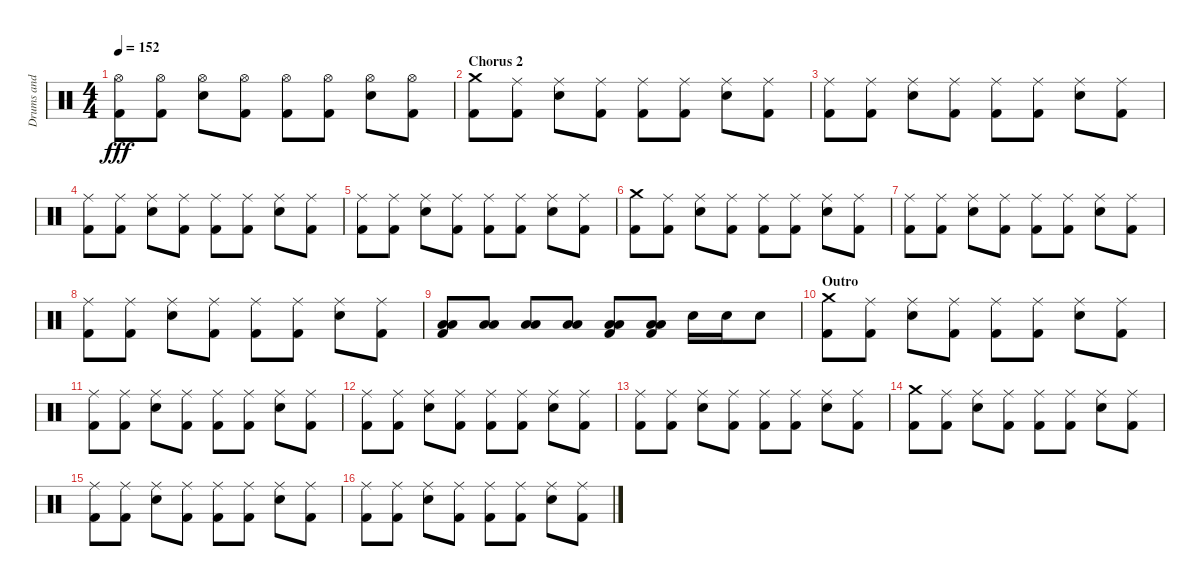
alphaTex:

\track ("Drums and Percussion" "Drums and ") {instrument percussion}
\staff {score}
\articulation defaults
\ts (4 4)
\tempo 152
\clef neutral
\ks c
("Hi-Hat (open)" "Kick (hit) 2").8{dy fff} ("Hi-Hat (open)" "Kick (hit) 2").8 ("Hi-Hat (open)" "Snare (hit) 2").8 ("Hi-Hat (open)" "Kick (hit) 2").8 ("Hi-Hat (open)" "Kick (hit) 2").8 ("Hi-Hat (open)" "Kick (hit) 2").8 ("Hi-Hat (open)" "Snare (hit) 2").8 ("Hi-Hat (open)" "Kick (hit) 2").8 |
\section ("" "Chorus 2")
("Crash medium (hit)" "Kick (hit) 2").8 ("Ride (middle)" "Kick (hit) 2").8 ("Ride (middle)" "Snare (hit) 2").8 ("Ride (middle)" "Kick (hit) 2").8 ("Ride (middle)" "Kick (hit) 2").8 ("Ride (middle)" "Kick (hit) 2").8 ("Ride (middle)" "Snare (hit) 2").8 ("Ride (middle)" "Kick (hit) 2").8 |
("Ride (middle)" "Kick (hit) 2").8 ("Ride (middle)" "Kick (hit) 2").8 ("Ride (middle)" "Snare (hit) 2").8 ("Ride (middle)" "Kick (hit) 2").8 ("Ride (middle)" "Kick (hit) 2").8 ("Ride (middle)" "Kick (hit) 2").8 ("Ride (middle)" "Snare (hit) 2").8 ("Ride (middle)" "Kick (hit) 2").8 |
("Ride (middle)" "Kick (hit) 2").8 ("Ride (middle)" "Kick (hit) 2").8 ("Ride (middle)" "Snare (hit) 2").8 ("Ride (middle)" "Kick (hit) 2").8 ("Ride (middle)" "Kick (hit) 2").8 ("Ride (middle)" "Kick (hit) 2").8 ("Ride (middle)" "Snare (hit) 2").8 ("Ride (middle)" "Kick (hit) 2").8 |
("Ride (middle)" "Kick (hit) 2").8 ("Ride (middle)" "Kick (hit) 2").8 ("Ride (middle)" "Snare (hit) 2").8 ("Ride (middle)" "Kick (hit) 2").8 ("Ride (middle)" "Kick (hit) 2").8 ("Ride (middle)" "Kick (hit) 2").8 ("Ride (middle)" "Snare (hit) 2").8 ("Ride (middle)" "Kick (hit) 2").8 |
("Crash medium (hit)" "Kick (hit) 2").8 ("Ride (middle)" "Kick (hit) 2").8 ("Ride (middle)" "Snare (hit) 2").8 ("Ride (middle)" "Kick (hit) 2").8 ("Ride (middle)" "Kick (hit) 2").8 ("Ride (middle)" "Kick (hit) 2").8 ("Ride (middle)" "Snare (hit) 2").8 ("Ride (middle)" "Kick (hit) 2").8 |
("Ride (middle)" "Kick (hit) 2").8 ("Ride (middle)" "Kick (hit) 2").8 ("Ride (middle)" "Snare (hit) 2").8 ("Ride (middle)" "Kick (hit) 2").8 ("Ride (middle)" "Kick (hit) 2").8 ("Ride (middle)" "Kick (hit) 2").8 ("Ride (middle)" "Snare (hit) 2").8 ("Ride (middle)" "Kick (hit) 2").8 |
("Ride (middle)" "Kick (hit) 2").8 ("Ride (middle)" "Kick (hit) 2").8 ("Ride (middle)" "Snare (hit) 2").8 ("Ride (middle)" "Kick (hit) 2").8 ("Ride (middle)" "Kick (hit) 2").8 ("Ride (middle)" "Kick (hit) 2").8 ("Ride (middle)" "Snare (hit) 2").8 ("Ride (middle)" "Kick (hit) 2").8 |
("Low Tom (hit)" "Low Floor Tom (hit)" "Kick (hit) 2").8 ("Low Tom (hit)" "Low Floor Tom (hit)").8 ("Low Tom (hit)" "Low Floor Tom (hit)").8 ("Low Tom (hit)" "Low Floor Tom (hit)").8 ("Low Tom (hit)" "Low Floor Tom (hit)" "Kick (hit) 2").8 ("Low Tom (hit)" "Low Floor Tom (hit)" "Kick (hit) 2").8 "Snare (hit) 2".16 "Snare (hit) 2".16 "Snare (hit) 2".8 |
\section ("" "Outro")
("Crash medium (hit)" "Kick (hit) 2").8 ("Ride (middle)" "Kick (hit) 2").8 ("Ride (middle)" "Snare (hit) 2").8 ("Ride (middle)" "Kick (hit) 2").8 ("Ride (middle)" "Kick (hit) 2").8 ("Ride (middle)" "Kick (hit) 2").8 ("Ride (middle)" "Snare (hit) 2").8 ("Ride (middle)" "Kick (hit) 2").8 |
("Ride (middle)" "Kick (hit) 2").8 ("Ride (middle)" "Kick (hit) 2").8 ("Ride (middle)" "Snare (hit) 2").8 ("Ride (middle)" "Kick (hit) 2").8 ("Ride (middle)" "Kick (hit) 2").8 ("Ride (middle)" "Kick (hit) 2").8 ("Ride (middle)" "Snare (hit) 2").8 ("Ride (middle)" "Kick (hit) 2").8 |
("Ride (middle)" "Kick (hit) 2").8 ("Ride (middle)" "Kick (hit) 2").8 ("Ride (middle)" "Snare (hit) 2").8 ("Ride (middle)" "Kick (hit) 2").8 ("Ride (middle)" "Kick (hit) 2").8 ("Ride (middle)" "Kick (hit) 2").8 ("Ride (middle)" "Snare (hit) 2").8 ("Ride (middle)" "Kick (hit) 2").8 |
("Ride (middle)" "Kick (hit) 2").8 ("Ride (middle)" "Kick (hit) 2").8 ("Ride (middle)" "Snare (hit) 2").8 ("Ride (middle)" "Kick (hit) 2").8 ("Ride (middle)" "Kick (hit) 2").8 ("Ride (middle)" "Kick (hit) 2").8 ("Ride (middle)" "Snare (hit) 2").8 ("Ride (middle)" "Kick (hit) 2").8 |
("Crash medium (hit)" "Kick (hit) 2").8 ("Ride (middle)" "Kick (hit) 2").8 ("Ride (middle)" "Snare (hit) 2").8 ("Ride (middle)" "Kick (hit) 2").8 ("Ride (middle)" "Kick (hit) 2").8 ("Ride (middle)" "Kick (hit) 2").8 ("Ride (middle)" "Snare (hit) 2").8 ("Ride (middle)" "Kick (hit) 2").8 |
("Ride (middle)" "Kick (hit) 2").8 ("Ride (middle)" "Kick (hit) 2").8 ("Ride (middle)" "Snare (hit) 2").8 ("Ride (middle)" "Kick (hit) 2").8 ("Ride (middle)" "Kick (hit) 2").8 ("Ride (middle)" "Kick (hit) 2").8 ("Ride (middle)" "Snare (hit) 2").8 ("Ride (middle)" "Kick (hit) 2").8 |
("Ride (middle)" "Kick (hit) 2").8 ("Ride (middle)" "Kick (hit) 2").8 ("Ride (middle)" "Snare (hit) 2").8 ("Ride (middle)" "Kick (hit) 2").8 ("Ride (middle)" "Kick (hit) 2").8 ("Ride (middle)" "Kick (hit) 2").8 ("Ride (middle)" "Snare (hit) 2").8 ("Ride (middle)" "Kick (hit) 2").8
